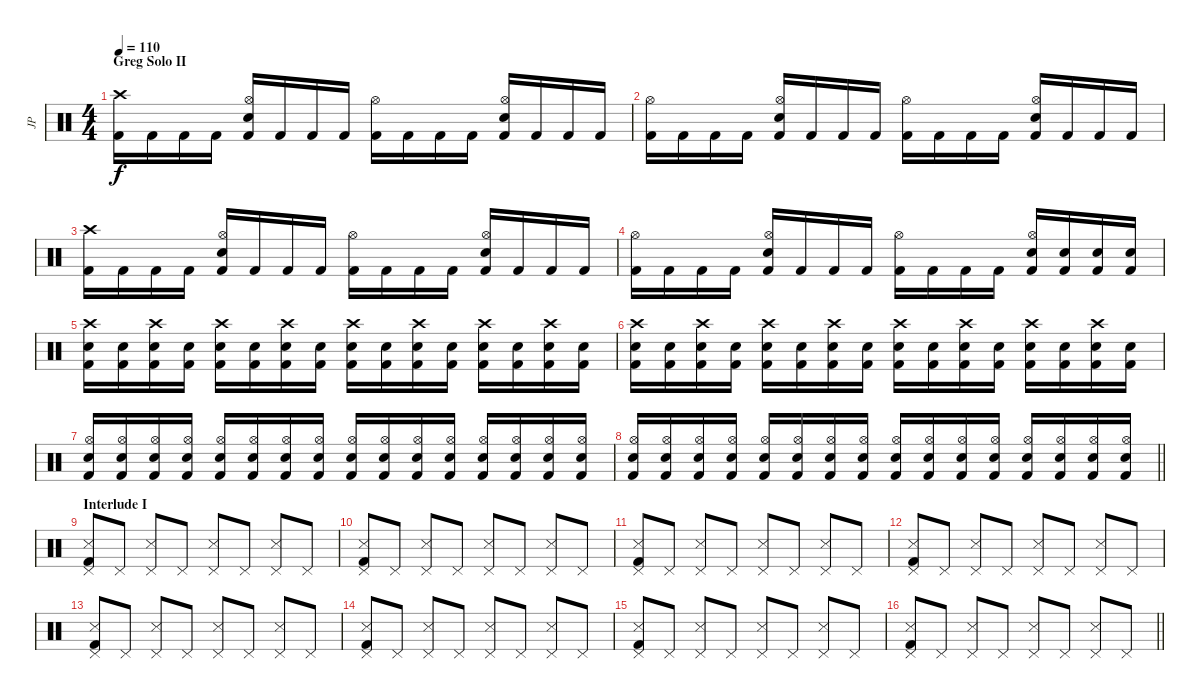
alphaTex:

\track ("JP" "JP") {instrument percussion}
\staff {score}
\articulation defaults
\ts (4 4)
\section ("" "Greg Solo II")
\tempo 110
\clef neutral
\ks c
("Crash high (hit)" "Kick (hit) 2").16{dy f} "Kick (hit) 2".16 "Kick (hit) 2".16 "Kick (hit) 2".16 ("Hi-Hat (open)" "Electric Snare (hit)" "Kick (hit) 2").16 "Kick (hit) 2".16 "Kick (hit) 2".16 "Kick (hit) 2".16 ("Hi-Hat (open)" "Kick (hit) 2").16 "Kick (hit) 2".16 "Kick (hit) 2".16 "Kick (hit) 2".16 ("Hi-Hat (open)" "Electric Snare (hit)" "Kick (hit) 2").16 "Kick (hit) 2".16 "Kick (hit) 2".16 "Kick (hit) 2".16 |
("Hi-Hat (open)" "Kick (hit) 2").16 "Kick (hit) 2".16 "Kick (hit) 2".16 "Kick (hit) 2".16 ("Hi-Hat (open)" "Electric Snare (hit)" "Kick (hit) 2").16 "Kick (hit) 2".16 "Kick (hit) 2".16 "Kick (hit) 2".16 ("Hi-Hat (open)" "Kick (hit) 2").16 "Kick (hit) 2".16 "Kick (hit) 2".16 "Kick (hit) 2".16 ("Hi-Hat (open)" "Electric Snare (hit)" "Kick (hit) 2").16 "Kick (hit) 2".16 "Kick (hit) 2".16 "Kick (hit) 2".16 |
("Crash high (hit)" "Kick (hit) 2").16 "Kick (hit) 2".16 "Kick (hit) 2".16 "Kick (hit) 2".16 ("Hi-Hat (open)" "Electric Snare (hit)" "Kick (hit) 2").16 "Kick (hit) 2".16 "Kick (hit) 2".16 "Kick (hit) 2".16 ("Hi-Hat (open)" "Kick (hit) 2").16 "Kick (hit) 2".16 "Kick (hit) 2".16 "Kick (hit) 2".16 ("Hi-Hat (open)" "Electric Snare (hit)" "Kick (hit) 2").16 "Kick (hit) 2".16 "Kick (hit) 2".16 "Kick (hit) 2".16 |
("Hi-Hat (open)" "Kick (hit) 2").16 "Kick (hit) 2".16 "Kick (hit) 2".16 "Kick (hit) 2".16 ("Hi-Hat (open)" "Electric Snare (hit)" "Kick (hit) 2").16 "Kick (hit) 2".16 "Kick (hit) 2".16 "Kick (hit) 2".16 ("Hi-Hat (open)" "Kick (hit) 2").16 "Kick (hit) 2".16 "Kick (hit) 2".16 "Kick (hit) 2".16 ("Hi-Hat (open)" "Electric Snare (hit)" "Kick (hit) 2").16 ("Electric Snare (hit)" "Kick (hit) 2").16 ("Electric Snare (hit)" "Kick (hit) 2").16 ("Electric Snare (hit)" "Kick (hit) 2").16 |
("Crash high (hit)" "Electric Snare (hit)" "Kick (hit) 2").16 ("Electric Snare (hit)" "Kick (hit) 2").16 ("Crash high (hit)" "Electric Snare (hit)" "Kick (hit) 2").16 ("Electric Snare (hit)" "Kick (hit) 2").16 ("Crash high (hit)" "Electric Snare (hit)" "Kick (hit) 2").16 ("Electric Snare (hit)" "Kick (hit) 2").16 ("Crash high (hit)" "Electric Snare (hit)" "Kick (hit) 2").16 ("Electric Snare (hit)" "Kick (hit) 2").16 ("Crash high (hit)" "Electric Snare (hit)" "Kick (hit) 2").16 ("Electric Snare (hit)" "Kick (hit) 2").16 ("Crash high (hit)" "Electric Snare (hit)" "Kick (hit) 2").16 ("Electric Snare (hit)" "Kick (hit) 2").16 ("Crash high (hit)" "Electric Snare (hit)" "Kick (hit) 2").16 ("Electric Snare (hit)" "Kick (hit) 2").16 ("Crash high (hit)" "Electric Snare (hit)" "Kick (hit) 2").16 ("Electric Snare (hit)" "Kick (hit) 2").16 |
("Crash high (hit)" "Electric Snare (hit)" "Kick (hit) 2").16 ("Electric Snare (hit)" "Kick (hit) 2").16 ("Crash high (hit)" "Electric Snare (hit)" "Kick (hit) 2").16 ("Electric Snare (hit)" "Kick (hit) 2").16 ("Crash high (hit)" "Electric Snare (hit)" "Kick (hit) 2").16 ("Electric Snare (hit)" "Kick (hit) 2").16 ("Crash high (hit)" "Electric Snare (hit)" "Kick (hit) 2").16 ("Electric Snare (hit)" "Kick (hit) 2").16 ("Crash high (hit)" "Electric Snare (hit)" "Kick (hit) 2").16 ("Electric Snare (hit)" "Kick (hit) 2").16 ("Crash high (hit)" "Electric Snare (hit)" "Kick (hit) 2").16 ("Electric Snare (hit)" "Kick (hit) 2").16 ("Crash high (hit)" "Electric Snare (hit)" "Kick (hit) 2").16 ("Electric Snare (hit)" "Kick (hit) 2").16 ("Crash high (hit)" "Electric Snare (hit)" "Kick (hit) 2").16 ("Electric Snare (hit)" "Kick (hit) 2").16 |
("Hi-Hat (open)" "Electric Snare (hit)" "Kick (hit) 2").16 ("Hi-Hat (open)" "Electric Snare (hit)" "Kick (hit) 2").16 ("Hi-Hat (open)" "Electric Snare (hit)" "Kick (hit) 2").16 ("Hi-Hat (open)" "Electric Snare (hit)" "Kick (hit) 2").16 ("Hi-Hat (open)" "Electric Snare (hit)" "Kick (hit) 2").16 ("Hi-Hat (open)" "Electric Snare (hit)" "Kick (hit) 2").16 ("Hi-Hat (open)" "Electric Snare (hit)" "Kick (hit) 2").16 ("Hi-Hat (open)" "Electric Snare (hit)" "Kick (hit) 2").16 ("Hi-Hat (open)" "Electric Snare (hit)" "Kick (hit) 2").16 ("Hi-Hat (open)" "Electric Snare (hit)" "Kick (hit) 2").16 ("Hi-Hat (open)" "Electric Snare (hit)" "Kick (hit) 2").16 ("Hi-Hat (open)" "Electric Snare (hit)" "Kick (hit) 2").16 ("Hi-Hat (open)" "Electric Snare (hit)" "Kick (hit) 2").16 ("Hi-Hat (open)" "Electric Snare (hit)" "Kick (hit) 2").16 ("Hi-Hat (open)" "Electric Snare (hit)" "Kick (hit) 2").16 ("Hi-Hat (open)" "Electric Snare (hit)" "Kick (hit) 2").16 |
\barLineRight lightlight
("Hi-Hat (open)" "Electric Snare (hit)" "Kick (hit) 2").16 ("Hi-Hat (open)" "Electric Snare (hit)" "Kick (hit) 2").16 ("Hi-Hat (open)" "Electric Snare (hit)" "Kick (hit) 2").16 ("Hi-Hat (open)" "Electric Snare (hit)" "Kick (hit) 2").16 ("Hi-Hat (open)" "Electric Snare (hit)" "Kick (hit) 2").16 ("Hi-Hat (open)" "Electric Snare (hit)" "Kick (hit) 2").16 ("Hi-Hat (open)" "Electric Snare (hit)" "Kick (hit) 2").16 ("Hi-Hat (open)" "Electric Snare (hit)" "Kick (hit) 2").16 ("Hi-Hat (open)" "Electric Snare (hit)" "Kick (hit) 2").16 ("Hi-Hat (open)" "Electric Snare (hit)" "Kick (hit) 2").16 ("Hi-Hat (open)" "Electric Snare (hit)" "Kick (hit) 2").16 ("Hi-Hat (open)" "Electric Snare (hit)" "Kick (hit) 2").16 ("Hi-Hat (open)" "Electric Snare (hit)" "Kick (hit) 2").16 ("Hi-Hat (open)" "Electric Snare (hit)" "Kick (hit) 2").16 ("Hi-Hat (open)" "Electric Snare (hit)" "Kick (hit) 2").16 ("Hi-Hat (open)" "Electric Snare (hit)" "Kick (hit) 2").16 |
\section ("" "Interlude I")
("Pedal Hi-Hat (hit)" "Snare (side stick) 3" "Kick (hit) 2").8 "Pedal Hi-Hat (hit)".8 ("Pedal Hi-Hat (hit)" "Snare (side stick) 3").8 "Pedal Hi-Hat (hit)".8 ("Pedal Hi-Hat (hit)" "Snare (side stick) 3").8 "Pedal Hi-Hat (hit)".8 ("Pedal Hi-Hat (hit)" "Snare (side stick) 3").8 "Pedal Hi-Hat (hit)".8 |
("Pedal Hi-Hat (hit)" "Snare (side stick) 3" "Kick (hit) 2").8 "Pedal Hi-Hat (hit)".8 ("Pedal Hi-Hat (hit)" "Snare (side stick) 3").8 "Pedal Hi-Hat (hit)".8 ("Pedal Hi-Hat (hit)" "Snare (side stick) 3").8 "Pedal Hi-Hat (hit)".8 ("Pedal Hi-Hat (hit)" "Snare (side stick) 3").8 "Pedal Hi-Hat (hit)".8 |
("Pedal Hi-Hat (hit)" "Snare (side stick) 3" "Kick (hit) 2").8 "Pedal Hi-Hat (hit)".8 ("Pedal Hi-Hat (hit)" "Snare (side stick) 3").8 "Pedal Hi-Hat (hit)".8 ("Pedal Hi-Hat (hit)" "Snare (side stick) 3").8 "Pedal Hi-Hat (hit)".8 ("Pedal Hi-Hat (hit)" "Snare (side stick) 3").8 "Pedal Hi-Hat (hit)".8 |
("Pedal Hi-Hat (hit)" "Snare (side stick) 3" "Kick (hit) 2").8 "Pedal Hi-Hat (hit)".8 ("Pedal Hi-Hat (hit)" "Snare (side stick) 3").8 "Pedal Hi-Hat (hit)".8 ("Pedal Hi-Hat (hit)" "Snare (side stick) 3").8 "Pedal Hi-Hat (hit)".8 ("Pedal Hi-Hat (hit)" "Snare (side stick) 3").8 "Pedal Hi-Hat (hit)".8 |
("Pedal Hi-Hat (hit)" "Snare (side stick) 3" "Kick (hit) 2").8 "Pedal Hi-Hat (hit)".8 ("Pedal Hi-Hat (hit)" "Snare (side stick) 3").8 "Pedal Hi-Hat (hit)".8 ("Pedal Hi-Hat (hit)" "Snare (side stick) 3").8 "Pedal Hi-Hat (hit)".8 ("Pedal Hi-Hat (hit)" "Snare (side stick) 3").8 "Pedal Hi-Hat (hit)".8 |
("Pedal Hi-Hat (hit)" "Snare (side stick) 3" "Kick (hit) 2").8 "Pedal Hi-Hat (hit)".8 ("Pedal Hi-Hat (hit)" "Snare (side stick) 3").8 "Pedal Hi-Hat (hit)".8 ("Pedal Hi-Hat (hit)" "Snare (side stick) 3").8 "Pedal Hi-Hat (hit)".8 ("Pedal Hi-Hat (hit)" "Snare (side stick) 3").8 "Pedal Hi-Hat (hit)".8 |
("Pedal Hi-Hat (hit)" "Snare (side stick) 3" "Kick (hit) 2").8 "Pedal Hi-Hat (hit)".8 ("Pedal Hi-Hat (hit)" "Snare (side stick) 3").8 "Pedal Hi-Hat (hit)".8 ("Pedal Hi-Hat (hit)" "Snare (side stick) 3").8 "Pedal Hi-Hat (hit)".8 ("Pedal Hi-Hat (hit)" "Snare (side stick) 3").8 "Pedal Hi-Hat (hit)".8 |
\barLineRight lightlight
("Pedal Hi-Hat (hit)" "Snare (side stick) 3" "Kick (hit) 2").8 "Pedal Hi-Hat (hit)".8 ("Pedal Hi-Hat (hit)" "Snare (side stick) 3").8 "Pedal Hi-Hat (hit)".8 ("Pedal Hi-Hat (hit)" "Snare (side stick) 3").8 "Pedal Hi-Hat (hit)".8 ("Pedal Hi-Hat (hit)" "Snare (side stick) 3").8 "Pedal Hi-Hat (hit)".8
